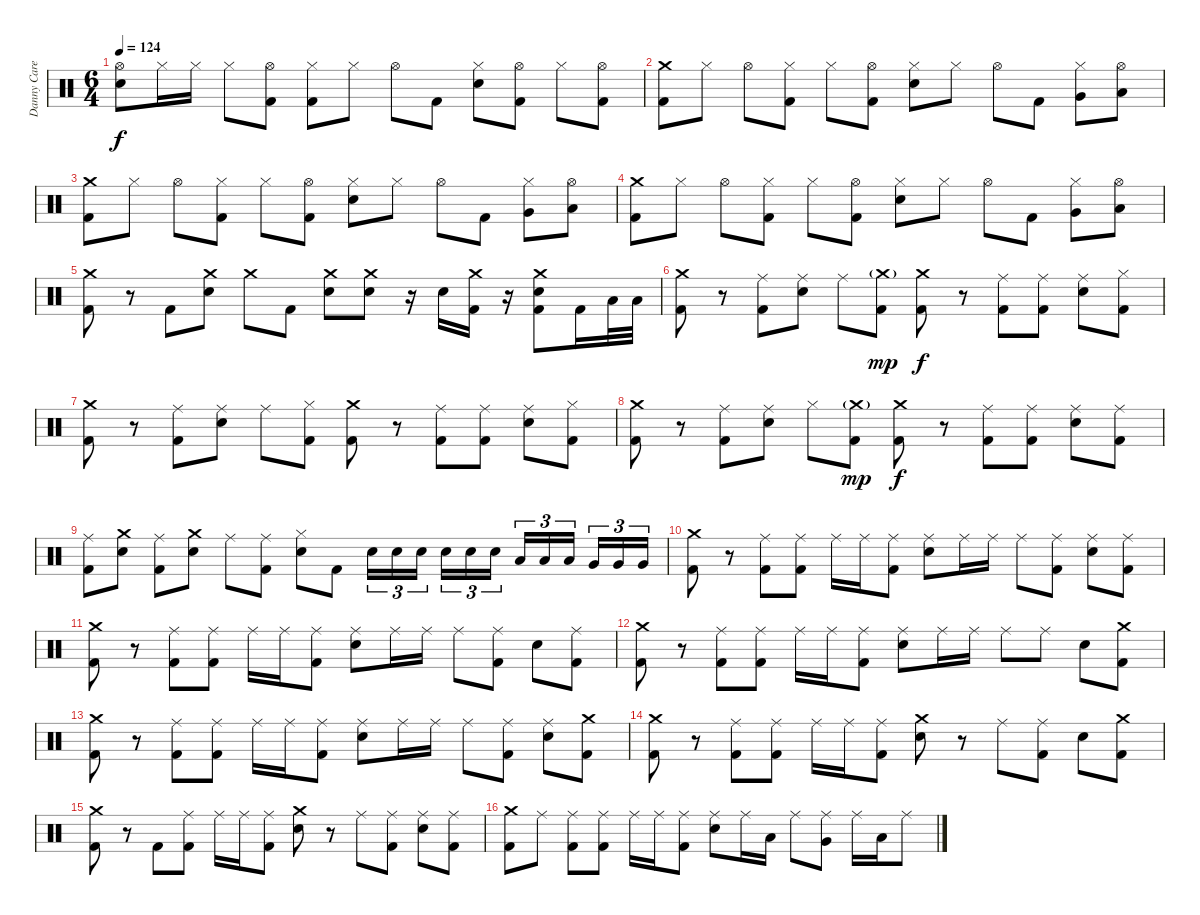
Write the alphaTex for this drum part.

\track ("Danny Carey" "Danny Care") {instrument percussion}
\staff {score}
\articulation defaults
\ts (6 4)
\tempo 124
\clef neutral
\ks c
("Hi-Hat (open)" "Electric Snare (hit)").8{dy f} "Hi-Hat (closed)".16 "Hi-Hat (closed)".16 "Hi-Hat (closed)".8 ("Hi-Hat (open)" "Kick (hit) 2").8 ("Hi-Hat (closed)" "Kick (hit) 2").8 "Hi-Hat (closed)".8 "Hi-Hat (open)".8 "Kick (hit) 2".8 ("Hi-Hat (closed)" "Electric Snare (hit)").8 ("Hi-Hat (open)" "Kick (hit) 2").8 "Hi-Hat (closed)".8 ("Hi-Hat (open)" "Kick (hit) 2").8 |
("Crash medium (hit)" "Kick (hit) 2").8 "Hi-Hat (closed)".8 "Hi-Hat (open)".8 ("Hi-Hat (closed)" "Kick (hit) 2").8 "Hi-Hat (closed)".8 ("Hi-Hat (open)" "Kick (hit) 2").8 ("Hi-Hat (closed)" "Electric Snare (hit)").8 "Hi-Hat (closed)".8 "Hi-Hat (open)".8 "Kick (hit) 2".8 ("Hi-Hat (closed)" "Very Low Tom (hit)").8 ("Hi-Hat (open)" "Low Floor Tom (hit)").8 |
("Crash medium (hit)" "Kick (hit) 2").8 "Hi-Hat (closed)".8 "Hi-Hat (open)".8 ("Hi-Hat (closed)" "Kick (hit) 2").8 "Hi-Hat (closed)".8 ("Hi-Hat (open)" "Kick (hit) 2").8 ("Hi-Hat (closed)" "Electric Snare (hit)").8 "Hi-Hat (closed)".8 "Hi-Hat (open)".8 "Kick (hit) 2".8 ("Hi-Hat (closed)" "Very Low Tom (hit)").8 ("Hi-Hat (open)" "Low Floor Tom (hit)").8 |
("Crash medium (hit)" "Kick (hit) 2").8 "Hi-Hat (closed)".8 "Hi-Hat (open)".8 ("Hi-Hat (closed)" "Kick (hit) 2").8 "Hi-Hat (closed)".8 ("Hi-Hat (open)" "Kick (hit) 2").8 ("Hi-Hat (closed)" "Electric Snare (hit)").8 "Hi-Hat (closed)".8 "Hi-Hat (open)".8 "Kick (hit) 2".8 ("Hi-Hat (closed)" "Very Low Tom (hit)").8 ("Hi-Hat (open)" "Low Floor Tom (hit)").8 |
("Crash medium (hit)" "Kick (hit) 2").8 r.8 "Kick (hit) 2".8 ("Crash medium (hit)" "Electric Snare (hit)").8 "Crash medium (hit)".8 "Kick (hit) 2".8 ("Crash medium (hit)" "Electric Snare (hit)").8 ("Crash medium (hit)" "Electric Snare (hit)").8 r.16 "Electric Snare (hit)".16 ("Crash medium (hit)" "Kick (hit) 2").16 r.16 ("Crash medium (hit)" "Electric Snare (hit)" "Kick (hit) 2").8 "Kick (hit) 2".16 "Low Tom (hit)".32 "Low Tom (hit)".32 |
("Crash medium (hit)" "Kick (hit) 2").8 r.8 ("Ride (middle)" "Kick (hit) 2").8 ("Ride (middle)" "Electric Snare (hit)").8 "Ride (middle)".8 ("Crash medium (hit)"{g} "Kick (hit) 2").8{dy mp} ("Crash medium (hit)" "Kick (hit) 2").8{dy f} r.8 ("Ride (middle)" "Kick (hit) 2").8 ("Ride (middle)" "Kick (hit) 2").8 ("Ride (middle)" "Electric Snare (hit)").8 ("Hi-Hat (closed)" "Kick (hit) 2").8 |
("Crash medium (hit)" "Kick (hit) 2").8 r.8 ("Ride (middle)" "Kick (hit) 2").8 ("Ride (middle)" "Electric Snare (hit)").8 "Ride (middle)".8 ("Hi-Hat (closed)" "Kick (hit) 2").8 ("Crash medium (hit)" "Kick (hit) 2").8 r.8 ("Ride (middle)" "Kick (hit) 2").8 ("Ride (middle)" "Kick (hit) 2").8 ("Ride (middle)" "Electric Snare (hit)").8 ("Hi-Hat (closed)" "Kick (hit) 2").8 |
("Crash medium (hit)" "Kick (hit) 2").8 r.8 ("Ride (middle)" "Kick (hit) 2").8 ("Ride (middle)" "Electric Snare (hit)").8 "Hi-Hat (closed)".8 ("Crash medium (hit)"{g} "Kick (hit) 2").8{dy mp} ("Crash medium (hit)" "Kick (hit) 2").8{dy f} r.8 ("Ride (middle)" "Kick (hit) 2").8 ("Ride (middle)" "Kick (hit) 2").8 ("Ride (middle)" "Electric Snare (hit)").8 ("Ride (middle)" "Kick (hit) 2").8 |
("Ride (middle)" "Kick (hit) 2").8 ("Crash medium (hit)" "Electric Snare (hit)").8 ("Ride (middle)" "Kick (hit) 2").8 ("Crash medium (hit)" "Electric Snare (hit)").8 "Ride (middle)".8 ("Ride (middle)" "Kick (hit) 2").8 ("Hi-Hat (closed)" "Electric Snare (hit)").8 "Kick (hit) 2".8 "Electric Snare (hit)".16{tu (3 2)} "Electric Snare (hit)".16{tu (3 2)} "Electric Snare (hit)".16{tu (3 2)} "Electric Snare (hit)".16{tu (3 2)} "Electric Snare (hit)".16{tu (3 2)} "Electric Snare (hit)".16{tu (3 2)} "Low Tom (hit)".16{tu (3 2)} "Low Tom (hit)".16{tu (3 2)} "Low Tom (hit)".16{tu (3 2)} "Very Low Tom (hit)".16{tu (3 2)} "Very Low Tom (hit)".16{tu (3 2)} "Very Low Tom (hit)".16{tu (3 2)} |
("Crash medium (hit)" "Kick (hit) 2").8 r.8 ("Ride (middle)" "Kick (hit) 2").8 ("Ride (middle)" "Kick (hit) 2").8 "Ride (middle)".16 "Ride (middle)".16 ("Ride (middle)" "Kick (hit) 2").8 ("Ride (middle)" "Electric Snare (hit)").8 "Ride (middle)".16 "Ride (middle)".16 "Ride (middle)".8 ("Ride (middle)" "Kick (hit) 2").8 ("Ride (middle)" "Electric Snare (hit)").8 ("Ride (middle)" "Kick (hit) 2").8 |
("Crash medium (hit)" "Kick (hit) 2").8 r.8 ("Ride (middle)" "Kick (hit) 2").8 ("Ride (middle)" "Kick (hit) 2").8 "Ride (middle)".16 "Ride (middle)".16 ("Ride (middle)" "Kick (hit) 2").8 ("Ride (middle)" "Electric Snare (hit)").8 "Ride (middle)".16 "Ride (middle)".16 "Ride (middle)".8 ("Ride (middle)" "Kick (hit) 2").8 "Electric Snare (hit)".8 ("Ride (middle)" "Kick (hit) 2").8 |
("Crash medium (hit)" "Kick (hit) 2").8 r.8 ("Ride (middle)" "Kick (hit) 2").8 ("Ride (middle)" "Kick (hit) 2").8 "Ride (middle)".16 "Ride (middle)".16 ("Ride (middle)" "Kick (hit) 2").8 ("Ride (middle)" "Electric Snare (hit)").8 "Ride (middle)".16 "Ride (middle)".16 "Ride (middle)".8 "Ride (middle)".8 "Electric Snare (hit)".8 ("Crash medium (hit)" "Kick (hit) 2").8 |
("Crash medium (hit)" "Kick (hit) 2").8 r.8 ("Ride (middle)" "Kick (hit) 2").8 ("Ride (middle)" "Kick (hit) 2").8 "Ride (middle)".16 "Ride (middle)".16 ("Ride (middle)" "Kick (hit) 2").8 ("Ride (middle)" "Electric Snare (hit)").8 "Ride (middle)".16 "Ride (middle)".16 "Ride (middle)".8 ("Ride (middle)" "Kick (hit) 2").8 ("Ride (middle)" "Electric Snare (hit)").8 ("Crash medium (hit)" "Kick (hit) 2").8 |
("Crash medium (hit)" "Kick (hit) 2").8 r.8 ("Ride (middle)" "Kick (hit) 2").8 ("Ride (middle)" "Kick (hit) 2").8 "Ride (middle)".16 "Ride (middle)".16 ("Ride (middle)" "Kick (hit) 2").8 ("Crash medium (hit)" "Electric Snare (hit)").8 r.8 "Ride (middle)".8 ("Ride (middle)" "Kick (hit) 2").8 "Electric Snare (hit)".8 ("Crash medium (hit)" "Kick (hit) 2").8 |
("Crash medium (hit)" "Kick (hit) 2").8 r.8 "Kick (hit) 2".8 ("Ride (middle)" "Kick (hit) 2").8 "Ride (middle)".16 "Ride (middle)".16 ("Ride (middle)" "Kick (hit) 2").8 ("Crash medium (hit)" "Electric Snare (hit)").8 r.8 "Ride (middle)".8 ("Ride (middle)" "Kick (hit) 2").8 ("Ride (middle)" "Electric Snare (hit)").8 ("Ride (middle)" "Kick (hit) 2").8 |
("Crash medium (hit)" "Kick (hit) 2").8 "Ride (middle)".8 ("Ride (middle)" "Kick (hit) 2").8 ("Ride (middle)" "Kick (hit) 2").8 "Ride (middle)".16 "Ride (middle)".16 ("Ride (middle)" "Kick (hit) 2").8 ("Ride (middle)" "Electric Snare (hit)").8 "Ride (middle)".16 "Low Tom (hit)".16 "Ride (middle)".8 ("Ride (middle)" "Very Low Tom (hit)").8 "Ride (middle)".16 "Low Floor Tom (hit)".16 "Ride (middle)".8
